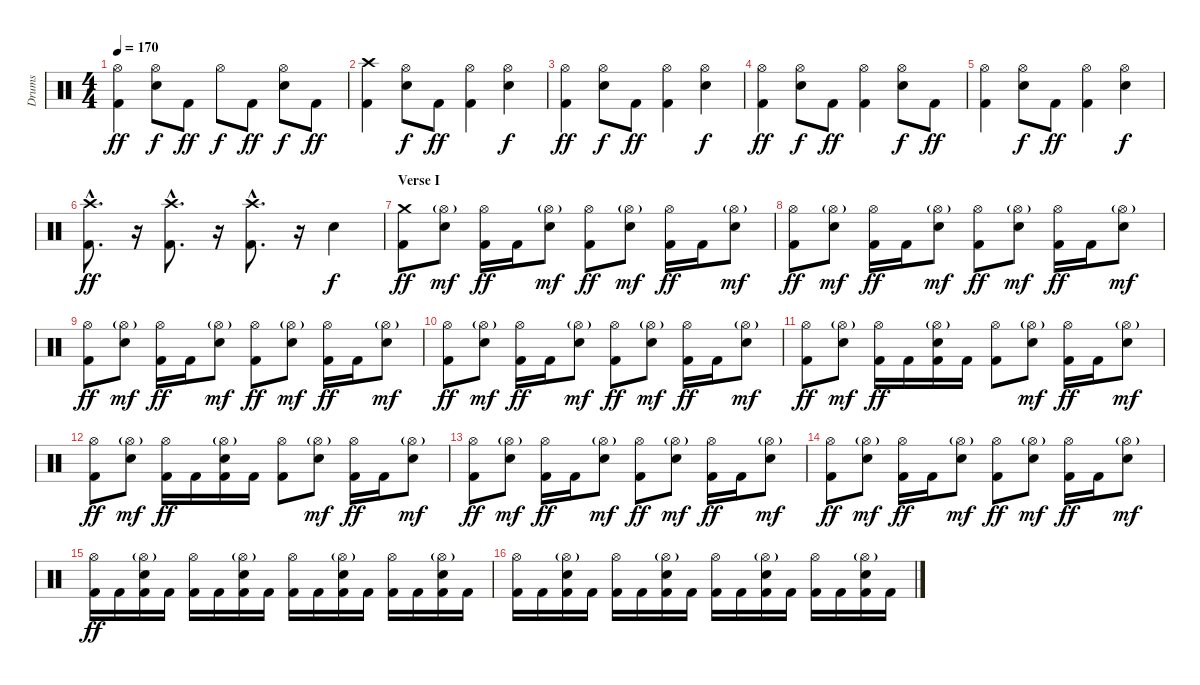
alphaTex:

\track ("Drums" "Drums") {instrument percussion}
\staff {score}
\articulation defaults
\ts (4 4)
\tempo 170
\clef neutral
\ks c
("Hi-Hat (open)" "Kick (hit) 2").4{dy ff} ("Hi-Hat (open)" "Electric Snare (hit)").8{dy f} "Kick (hit) 2".8{dy ff} "Hi-Hat (open)".8{dy f} "Kick (hit) 2".8{dy ff} ("Hi-Hat (open)" "Electric Snare (hit)").8{dy f} "Kick (hit) 2".8{dy ff} |
("Crash high (hit)" "Kick (hit) 2").4 ("Hi-Hat (open)" "Electric Snare (hit)").8{dy f} "Kick (hit) 2".8{dy ff} ("Hi-Hat (open)" "Kick (hit) 2").4 ("Hi-Hat (open)" "Electric Snare (hit)").4{dy f} |
("Hi-Hat (open)" "Kick (hit) 2").4{dy ff} ("Hi-Hat (open)" "Electric Snare (hit)").8{dy f} "Kick (hit) 2".8{dy ff} ("Hi-Hat (open)" "Kick (hit) 2").4 ("Hi-Hat (open)" "Electric Snare (hit)").4{dy f} |
("Hi-Hat (open)" "Kick (hit) 2").4{dy ff} ("Hi-Hat (open)" "Electric Snare (hit)").8{dy f} "Kick (hit) 2".8{dy ff} ("Hi-Hat (open)" "Kick (hit) 2").4 ("Hi-Hat (open)" "Electric Snare (hit)").8{dy f} "Kick (hit) 2".8{dy ff} |
("Hi-Hat (open)" "Kick (hit) 2").4 ("Hi-Hat (open)" "Electric Snare (hit)").8{dy f} "Kick (hit) 2".8{dy ff} ("Hi-Hat (open)" "Kick (hit) 2").4 ("Hi-Hat (open)" "Electric Snare (hit)").4{dy f} |
("Crash high (hit)"{hac} "Kick (hit) 2"{hac}).8{d dy ff} r.16{volume 6} ("Crash high (hit)"{hac} "Kick (hit) 2"{hac}).8{d volume 13} r.16{volume 4} ("Crash high (hit)"{hac} "Kick (hit) 2"{hac}).8{d volume 13} r.16{volume 4} "Electric Snare (hit)".4{dy f volume 13} |
\section ("" "Verse I")
("Crash medium (hit)" "Kick (hit) 2").8{dy ff} ("Hi-Hat (open)"{g} "Electric Snare (hit)").8{dy mf} ("Hi-Hat (open)" "Kick (hit) 2").16{dy ff} "Kick (hit) 2".16 ("Hi-Hat (open)"{g} "Electric Snare (hit)").8{dy mf} ("Hi-Hat (open)" "Kick (hit) 2").8{dy ff} ("Hi-Hat (open)"{g} "Electric Snare (hit)").8{dy mf} ("Hi-Hat (open)" "Kick (hit) 2").16{dy ff} "Kick (hit) 2".16 ("Hi-Hat (open)"{g} "Electric Snare (hit)").8{dy mf} |
("Hi-Hat (open)" "Kick (hit) 2").8{dy ff} ("Hi-Hat (open)"{g} "Electric Snare (hit)").8{dy mf} ("Hi-Hat (open)" "Kick (hit) 2").16{dy ff} "Kick (hit) 2".16 ("Hi-Hat (open)"{g} "Electric Snare (hit)").8{dy mf} ("Hi-Hat (open)" "Kick (hit) 2").8{dy ff} ("Hi-Hat (open)"{g} "Electric Snare (hit)").8{dy mf} ("Hi-Hat (open)" "Kick (hit) 2").16{dy ff} "Kick (hit) 2".16 ("Hi-Hat (open)"{g} "Electric Snare (hit)").8{dy mf} |
("Hi-Hat (open)" "Kick (hit) 2").8{dy ff} ("Hi-Hat (open)"{g} "Electric Snare (hit)").8{dy mf} ("Hi-Hat (open)" "Kick (hit) 2").16{dy ff} "Kick (hit) 2".16 ("Hi-Hat (open)"{g} "Electric Snare (hit)").8{dy mf} ("Hi-Hat (open)" "Kick (hit) 2").8{dy ff} ("Hi-Hat (open)"{g} "Electric Snare (hit)").8{dy mf} ("Hi-Hat (open)" "Kick (hit) 2").16{dy ff} "Kick (hit) 2".16 ("Hi-Hat (open)"{g} "Electric Snare (hit)").8{dy mf} |
("Hi-Hat (open)" "Kick (hit) 2").8{dy ff} ("Hi-Hat (open)"{g} "Electric Snare (hit)").8{dy mf} ("Hi-Hat (open)" "Kick (hit) 2").16{dy ff} "Kick (hit) 2".16 ("Hi-Hat (open)"{g} "Electric Snare (hit)").8{dy mf} ("Hi-Hat (open)" "Kick (hit) 2").8{dy ff} ("Hi-Hat (open)"{g} "Electric Snare (hit)").8{dy mf} ("Hi-Hat (open)" "Kick (hit) 2").16{dy ff} "Kick (hit) 2".16 ("Hi-Hat (open)"{g} "Electric Snare (hit)").8{dy mf} |
("Hi-Hat (open)" "Kick (hit) 2").8{dy ff} ("Hi-Hat (open)"{g} "Electric Snare (hit)").8{dy mf} ("Hi-Hat (open)" "Kick (hit) 2").16{dy ff} "Kick (hit) 2".16 ("Hi-Hat (open)"{g} "Electric Snare (hit)" "Kick (hit) 2").16 "Kick (hit) 2".16 ("Hi-Hat (open)" "Kick (hit) 2").8 ("Hi-Hat (open)"{g} "Electric Snare (hit)").8{dy mf} ("Hi-Hat (open)" "Kick (hit) 2").16{dy ff} "Kick (hit) 2".16 ("Hi-Hat (open)"{g} "Electric Snare (hit)").8{dy mf} |
("Hi-Hat (open)" "Kick (hit) 2").8{dy ff} ("Hi-Hat (open)"{g} "Electric Snare (hit)").8{dy mf} ("Hi-Hat (open)" "Kick (hit) 2").16{dy ff} "Kick (hit) 2".16 ("Hi-Hat (open)"{g} "Electric Snare (hit)" "Kick (hit) 2").16 "Kick (hit) 2".16 ("Hi-Hat (open)" "Kick (hit) 2").8 ("Hi-Hat (open)"{g} "Electric Snare (hit)").8{dy mf} ("Hi-Hat (open)" "Kick (hit) 2").16{dy ff} "Kick (hit) 2".16 ("Hi-Hat (open)"{g} "Electric Snare (hit)").8{dy mf} |
("Hi-Hat (open)" "Kick (hit) 2").8{dy ff} ("Hi-Hat (open)"{g} "Electric Snare (hit)").8{dy mf} ("Hi-Hat (open)" "Kick (hit) 2").16{dy ff} "Kick (hit) 2".16 ("Hi-Hat (open)"{g} "Electric Snare (hit)").8{dy mf} ("Hi-Hat (open)" "Kick (hit) 2").8{dy ff} ("Hi-Hat (open)"{g} "Electric Snare (hit)").8{dy mf} ("Hi-Hat (open)" "Kick (hit) 2").16{dy ff} "Kick (hit) 2".16 ("Hi-Hat (open)"{g} "Electric Snare (hit)").8{dy mf} |
("Hi-Hat (open)" "Kick (hit) 2").8{dy ff} ("Hi-Hat (open)"{g} "Electric Snare (hit)").8{dy mf} ("Hi-Hat (open)" "Kick (hit) 2").16{dy ff} "Kick (hit) 2".16 ("Hi-Hat (open)"{g} "Electric Snare (hit)").8{dy mf} ("Hi-Hat (open)" "Kick (hit) 2").8{dy ff} ("Hi-Hat (open)"{g} "Electric Snare (hit)").8{dy mf} ("Hi-Hat (open)" "Kick (hit) 2").16{dy ff} "Kick (hit) 2".16 ("Hi-Hat (open)"{g} "Electric Snare (hit)").8{dy mf} |
("Hi-Hat (open)" "Kick (hit) 2").16{dy ff} "Kick (hit) 2".16 ("Hi-Hat (open)"{g} "Electric Snare (hit)" "Kick (hit) 2").16 "Kick (hit) 2".16 ("Hi-Hat (open)" "Kick (hit) 2").16 "Kick (hit) 2".16 ("Hi-Hat (open)"{g} "Electric Snare (hit)" "Kick (hit) 2").16 "Kick (hit) 2".16 ("Hi-Hat (open)" "Kick (hit) 2").16 "Kick (hit) 2".16 ("Hi-Hat (open)"{g} "Electric Snare (hit)" "Kick (hit) 2").16 "Kick (hit) 2".16 ("Hi-Hat (open)" "Kick (hit) 2").16 "Kick (hit) 2".16 ("Hi-Hat (open)"{g} "Electric Snare (hit)" "Kick (hit) 2").16 "Kick (hit) 2".16 |
("Hi-Hat (open)" "Kick (hit) 2").16 "Kick (hit) 2".16 ("Hi-Hat (open)"{g} "Electric Snare (hit)" "Kick (hit) 2").16 "Kick (hit) 2".16 ("Hi-Hat (open)" "Kick (hit) 2").16 "Kick (hit) 2".16 ("Hi-Hat (open)"{g} "Electric Snare (hit)" "Kick (hit) 2").16 "Kick (hit) 2".16 ("Hi-Hat (open)" "Kick (hit) 2").16 "Kick (hit) 2".16 ("Hi-Hat (open)"{g} "Electric Snare (hit)" "Kick (hit) 2").16 "Kick (hit) 2".16 ("Hi-Hat (open)" "Kick (hit) 2").16 "Kick (hit) 2".16 ("Hi-Hat (open)"{g} "Electric Snare (hit)" "Kick (hit) 2").16 "Kick (hit) 2".16
